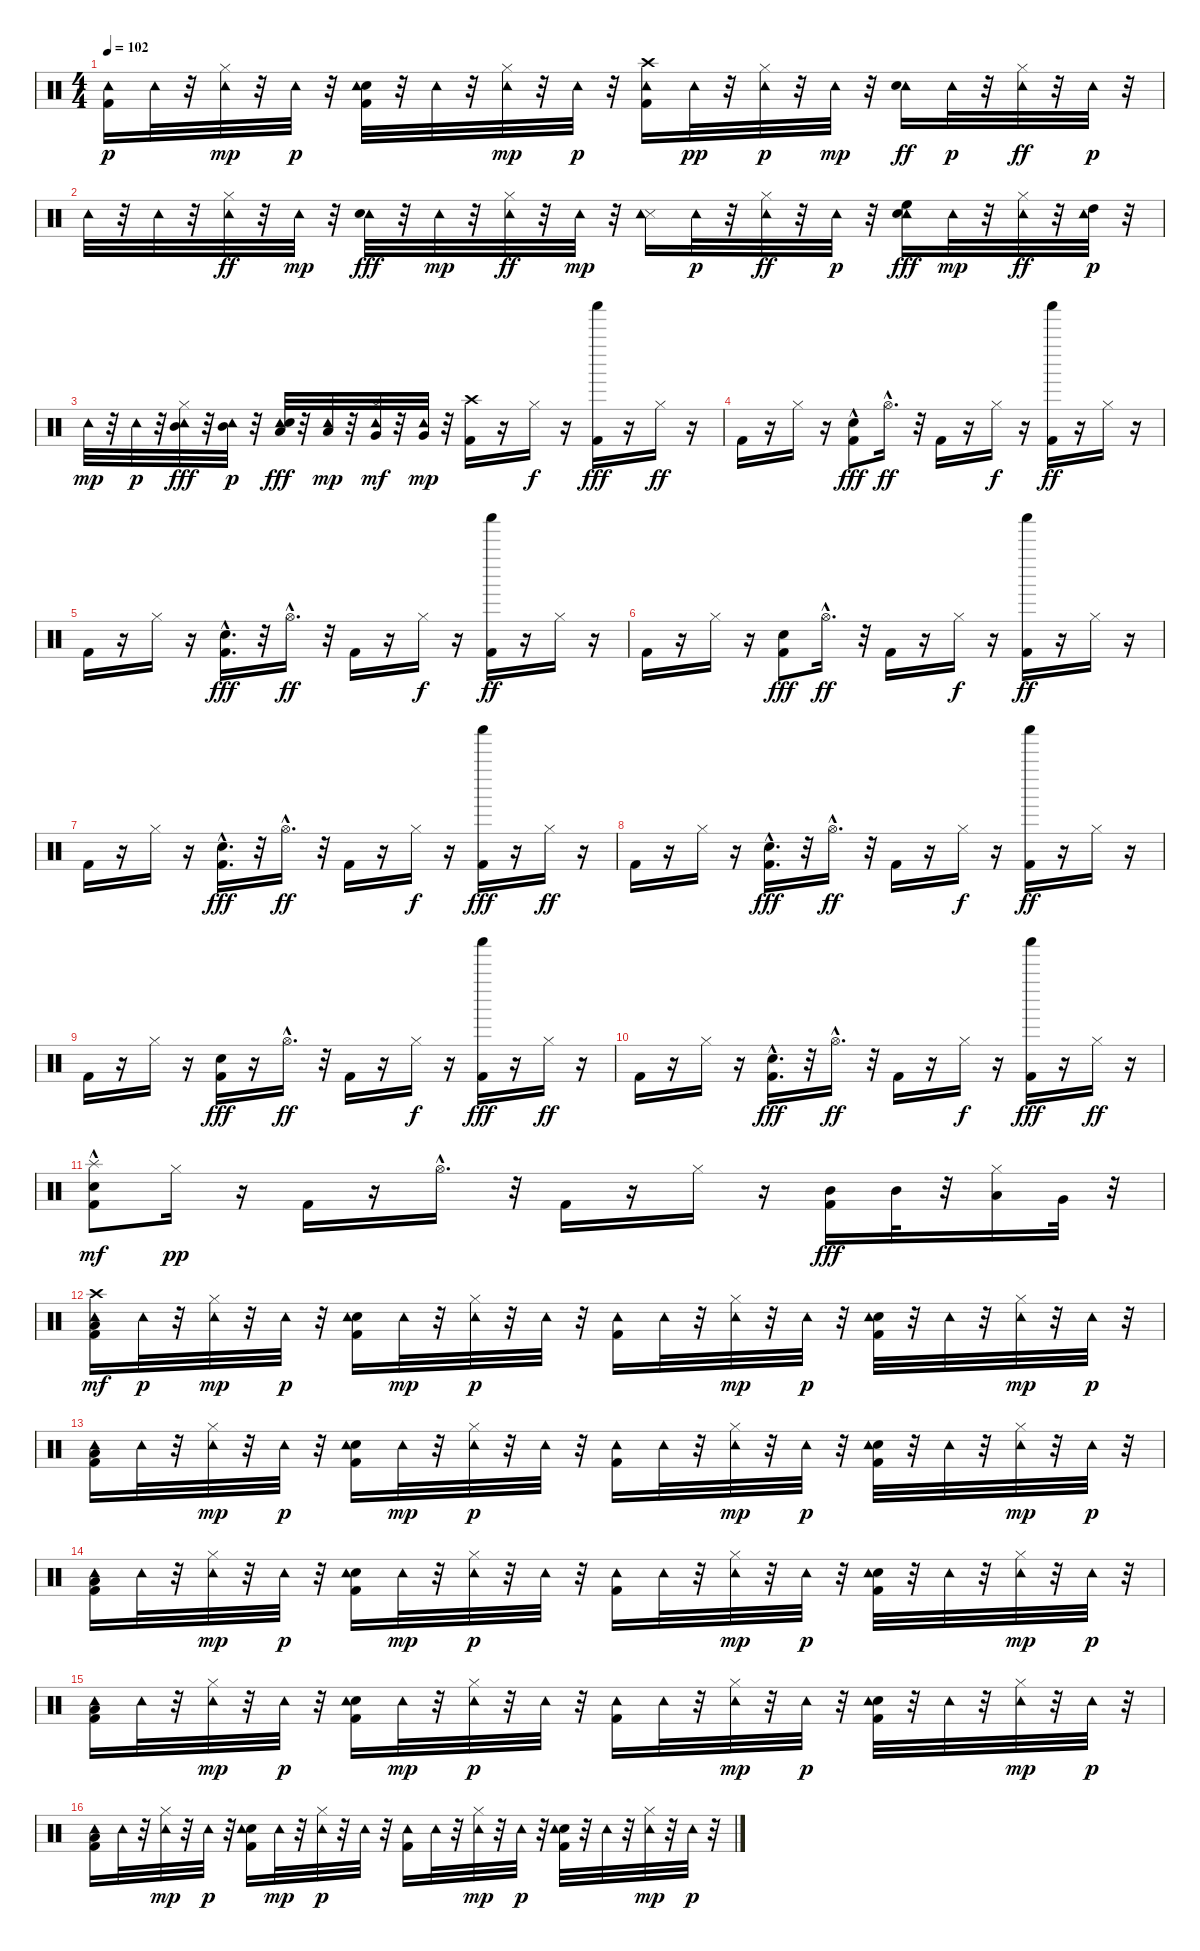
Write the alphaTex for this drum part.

\track "" {instrument percussion}
\staff {score}
\articulation defaults
\ts (4 4)
\tempo 102
\clef neutral
\ks c
("Kick (hit) 2" "Tambourine (hit)").16{dy p} "Tambourine (hit)".32 r.32 ("Tambourine (hit)" "Hi-Hat (closed)").32{dy mp} r.32 "Tambourine (hit)".32{dy p} r.32 ("Kick (hit) 2" "Snare (hit) 2" "Tambourine (hit)").32 r.32 "Tambourine (hit)".32 r.32 ("Tambourine (hit)" "Hi-Hat (closed)").32{dy mp} r.32 "Tambourine (hit)".32{dy p} r.32 ("Crash high (hit)" "Kick (hit) 2" "Tambourine (hit)").16 "Tambourine (hit)".32{dy pp} r.32 ("Tambourine (hit)" "Hi-Hat (closed)").32{dy p} r.32 "Tambourine (hit)".32{dy mp} r.32 ("Tambourine (hit)" "Hand Clap (hit)").16{dy ff} "Tambourine (hit)".32{dy p} r.32 ("Tambourine (hit)" "Hi-Hat (closed)").32{dy ff} r.32 "Tambourine (hit)".32{dy p} r.32 |
"Tambourine (hit)".32 r.32 "Tambourine (hit)".32 r.32 ("Tambourine (hit)" "Hi-Hat (closed)").32{dy ff} r.32 "Tambourine (hit)".32{dy mp} r.32 ("Tambourine (hit)" "Hand Clap (hit)").32{dy fff} r.32 "Tambourine (hit)".32{dy mp} r.32 ("Tambourine (hit)" "Hi-Hat (closed)").32{dy ff} r.32 "Tambourine (hit)".32{dy mp} r.32 ("Snare (side stick) 3" "Tambourine (hit)").16 "Tambourine (hit)".32{dy p} r.32 ("Tambourine (hit)" "Hi-Hat (closed)").32{dy ff} r.32 "Tambourine (hit)".32{dy p} r.32 ("High Floor Tom (hit)" "Tambourine (hit)" "Hand Clap (hit)").16{dy fff} "Tambourine (hit)".32{dy mp} r.32 ("Tambourine (hit)" "Hi-Hat (closed)").32{dy ff} r.32 ("High Tom (hit)" "Tambourine (hit)").32{dy p} r.32 |
"Tambourine (hit)".32{dy mp} r.32 "Tambourine (hit)".32{dy p} r.32 ("Mid Tom (hit)" "Tambourine (hit)" "Hi-Hat (closed)").32{dy fff} r.32 ("Mid Tom (hit)" "Tambourine (hit)").32{dy p} r.32 ("Low Tom (hit)" "Tambourine (hit)" "Hand Clap (hit)").32{dy fff} r.32 ("Low Tom (hit)" "Tambourine (hit)").32{dy mp} r.32 ("Very Low Tom (hit)" "Tambourine (hit)" "Hi-Hat (closed)").32{dy mf} r.32 ("Very Low Tom (hit)" "Tambourine (hit)").32{dy mp} r.32 ("Kick (hit) 2" "Crash high (hit)").16 r.16 "Hi-Hat (closed)".16{dy f} r.16 ("Kick (hit) 2" "Shaker (hit)").16{dy fff} r.16 "Hi-Hat (closed)".16{dy ff} r.16 |
"Kick (hit) 2".16 r.16 "Hi-Hat (closed)".16 r.16 ("Kick (hit) 2" "Hand Clap (hit)"{hac}).8{dy fff} "Hi-Hat (open)"{hac}.16{d dy ff} r.32 "Kick (hit) 2".16 r.16 "Hi-Hat (closed)".16{dy f} r.16 ("Kick (hit) 2" "Shaker (hit)").16{dy ff} r.16 "Hi-Hat (closed)".16 r.16 |
"Kick (hit) 2".16 r.16 "Hi-Hat (closed)".16 r.16 ("Kick (hit) 2" "Hand Clap (hit)"{hac}).16{d dy fff} r.32 "Hi-Hat (open)"{hac}.16{d dy ff} r.32 "Kick (hit) 2".16 r.16 "Hi-Hat (closed)".16{dy f} r.16 ("Kick (hit) 2" "Shaker (hit)").16{dy ff} r.16 "Hi-Hat (closed)".16 r.16 |
"Kick (hit) 2".16 r.16 "Hi-Hat (closed)".16 r.16 ("Kick (hit) 2" "Hand Clap (hit)").8{dy fff} "Hi-Hat (open)"{hac}.16{d dy ff} r.32 "Kick (hit) 2".16 r.16 "Hi-Hat (closed)".16{dy f} r.16 ("Kick (hit) 2" "Shaker (hit)").16{dy ff} r.16 "Hi-Hat (closed)".16 r.16 |
"Kick (hit) 2".16 r.16 "Hi-Hat (closed)".16 r.16 ("Kick (hit) 2" "Hand Clap (hit)"{hac}).16{d dy fff} r.32 "Hi-Hat (open)"{hac}.16{d dy ff} r.32 "Kick (hit) 2".16 r.16 "Hi-Hat (closed)".16{dy f} r.16 ("Kick (hit) 2" "Shaker (hit)").16{dy fff} r.16 "Hi-Hat (closed)".16{dy ff} r.16 |
"Kick (hit) 2".16 r.16 "Hi-Hat (closed)".16 r.16 ("Kick (hit) 2" "Hand Clap (hit)"{hac}).16{d dy fff} r.32 "Hi-Hat (open)"{hac}.16{d dy ff} r.32 "Kick (hit) 2".16 r.16 "Hi-Hat (closed)".16{dy f} r.16 ("Kick (hit) 2" "Shaker (hit)").16{dy ff} r.16 "Hi-Hat (closed)".16 r.16 |
"Kick (hit) 2".16 r.16 "Hi-Hat (closed)".16 r.16 ("Kick (hit) 2" "Hand Clap (hit)").16{dy fff} r.16 "Hi-Hat (open)"{hac}.16{d dy ff} r.32 "Kick (hit) 2".16 r.16 "Hi-Hat (closed)".16{dy f} r.16 ("Kick (hit) 2" "Shaker (hit)").16{dy fff} r.16 "Hi-Hat (closed)".16{dy ff} r.16 |
"Kick (hit) 2".16 r.16 "Hi-Hat (closed)".16 r.16 ("Kick (hit) 2" "Hand Clap (hit)"{hac}).16{d dy fff} r.32 "Hi-Hat (open)"{hac}.16{d dy ff} r.32 "Kick (hit) 2".16 r.16 "Hi-Hat (closed)".16{dy f} r.16 ("Kick (hit) 2" "Shaker (hit)").16{dy fff} r.16 "Hi-Hat (closed)".16{dy ff} r.16 |
("Kick (hit) 2" "Hand Clap (hit)" "Splash (hit)"{hac}).8{dy mf} "Hi-Hat (closed)".16{dy pp} r.16 "Kick (hit) 2".16 r.16 "Hi-Hat (open)"{hac}.16{d} r.32 "Kick (hit) 2".16 r.16 "Hi-Hat (closed)".16 r.16 ("Kick (hit) 2" "Mid Tom (hit)").16{dy fff} "Mid Tom (hit)".32 r.32 ("Hi-Hat (closed)" "Low Tom (hit)").16 "Very Low Tom (hit)".32 r.32 |
("Low Floor Tom (hit)" "Kick (hit) 2" "Tambourine (hit)" "Crash high (hit)").16{dy mf} "Tambourine (hit)".32{dy p} r.32 ("Tambourine (hit)" "Hi-Hat (closed)").32{dy mp} r.32 "Tambourine (hit)".32{dy p} r.32 ("Kick (hit) 2" "Snare (hit) 2" "Tambourine (hit)").16 "Tambourine (hit)".32{dy mp} r.32 ("Tambourine (hit)" "Hi-Hat (closed)").32{dy p} r.32 "Tambourine (hit)".32 r.32 ("Kick (hit) 2" "Tambourine (hit)").16 "Tambourine (hit)".32 r.32 ("Tambourine (hit)" "Hi-Hat (closed)").32{dy mp} r.32 "Tambourine (hit)".32{dy p} r.32 ("Kick (hit) 2" "Snare (hit) 2" "Tambourine (hit)").32 r.32 "Tambourine (hit)".32 r.32 ("Tambourine (hit)" "Hi-Hat (closed)").32{dy mp} r.32 "Tambourine (hit)".32{dy p} r.32 |
("Low Floor Tom (hit)" "Kick (hit) 2" "Tambourine (hit)").16 "Tambourine (hit)".32 r.32 ("Tambourine (hit)" "Hi-Hat (closed)").32{dy mp} r.32 "Tambourine (hit)".32{dy p} r.32 ("Kick (hit) 2" "Snare (hit) 2" "Tambourine (hit)").16 "Tambourine (hit)".32{dy mp} r.32 ("Tambourine (hit)" "Hi-Hat (closed)").32{dy p} r.32 "Tambourine (hit)".32 r.32 ("Kick (hit) 2" "Tambourine (hit)").16 "Tambourine (hit)".32 r.32 ("Tambourine (hit)" "Hi-Hat (closed)").32{dy mp} r.32 "Tambourine (hit)".32{dy p} r.32 ("Kick (hit) 2" "Snare (hit) 2" "Tambourine (hit)").32 r.32 "Tambourine (hit)".32 r.32 ("Tambourine (hit)" "Hi-Hat (closed)").32{dy mp} r.32 "Tambourine (hit)".32{dy p} r.32 |
("Low Floor Tom (hit)" "Kick (hit) 2" "Tambourine (hit)").16 "Tambourine (hit)".32 r.32 ("Tambourine (hit)" "Hi-Hat (closed)").32{dy mp} r.32 "Tambourine (hit)".32{dy p} r.32 ("Kick (hit) 2" "Snare (hit) 2" "Tambourine (hit)").16 "Tambourine (hit)".32{dy mp} r.32 ("Tambourine (hit)" "Hi-Hat (closed)").32{dy p} r.32 "Tambourine (hit)".32 r.32 ("Kick (hit) 2" "Tambourine (hit)").16 "Tambourine (hit)".32 r.32 ("Tambourine (hit)" "Hi-Hat (closed)").32{dy mp} r.32 "Tambourine (hit)".32{dy p} r.32 ("Kick (hit) 2" "Snare (hit) 2" "Tambourine (hit)").32 r.32 "Tambourine (hit)".32 r.32 ("Tambourine (hit)" "Hi-Hat (closed)").32{dy mp} r.32 "Tambourine (hit)".32{dy p} r.32 |
("Low Floor Tom (hit)" "Kick (hit) 2" "Tambourine (hit)").16 "Tambourine (hit)".32 r.32 ("Tambourine (hit)" "Hi-Hat (closed)").32{dy mp} r.32 "Tambourine (hit)".32{dy p} r.32 ("Kick (hit) 2" "Snare (hit) 2" "Tambourine (hit)").16 "Tambourine (hit)".32{dy mp} r.32 ("Tambourine (hit)" "Hi-Hat (closed)").32{dy p} r.32 "Tambourine (hit)".32 r.32 ("Kick (hit) 2" "Tambourine (hit)").16 "Tambourine (hit)".32 r.32 ("Tambourine (hit)" "Hi-Hat (closed)").32{dy mp} r.32 "Tambourine (hit)".32{dy p} r.32 ("Kick (hit) 2" "Snare (hit) 2" "Tambourine (hit)").32 r.32 "Tambourine (hit)".32 r.32 ("Tambourine (hit)" "Hi-Hat (closed)").32{dy mp} r.32 "Tambourine (hit)".32{dy p} r.32 |
("Low Floor Tom (hit)" "Kick (hit) 2" "Tambourine (hit)").16 "Tambourine (hit)".32 r.32 ("Tambourine (hit)" "Hi-Hat (closed)").32{dy mp} r.32 "Tambourine (hit)".32{dy p} r.32 ("Kick (hit) 2" "Snare (hit) 2" "Tambourine (hit)").16 "Tambourine (hit)".32{dy mp} r.32 ("Tambourine (hit)" "Hi-Hat (closed)").32{dy p} r.32 "Tambourine (hit)".32 r.32 ("Kick (hit) 2" "Tambourine (hit)").16 "Tambourine (hit)".32 r.32 ("Tambourine (hit)" "Hi-Hat (closed)").32{dy mp} r.32 "Tambourine (hit)".32{dy p} r.32 ("Kick (hit) 2" "Snare (hit) 2" "Tambourine (hit)").32 r.32 "Tambourine (hit)".32 r.32 ("Tambourine (hit)" "Hi-Hat (closed)").32{dy mp} r.32 "Tambourine (hit)".32{dy p} r.32
